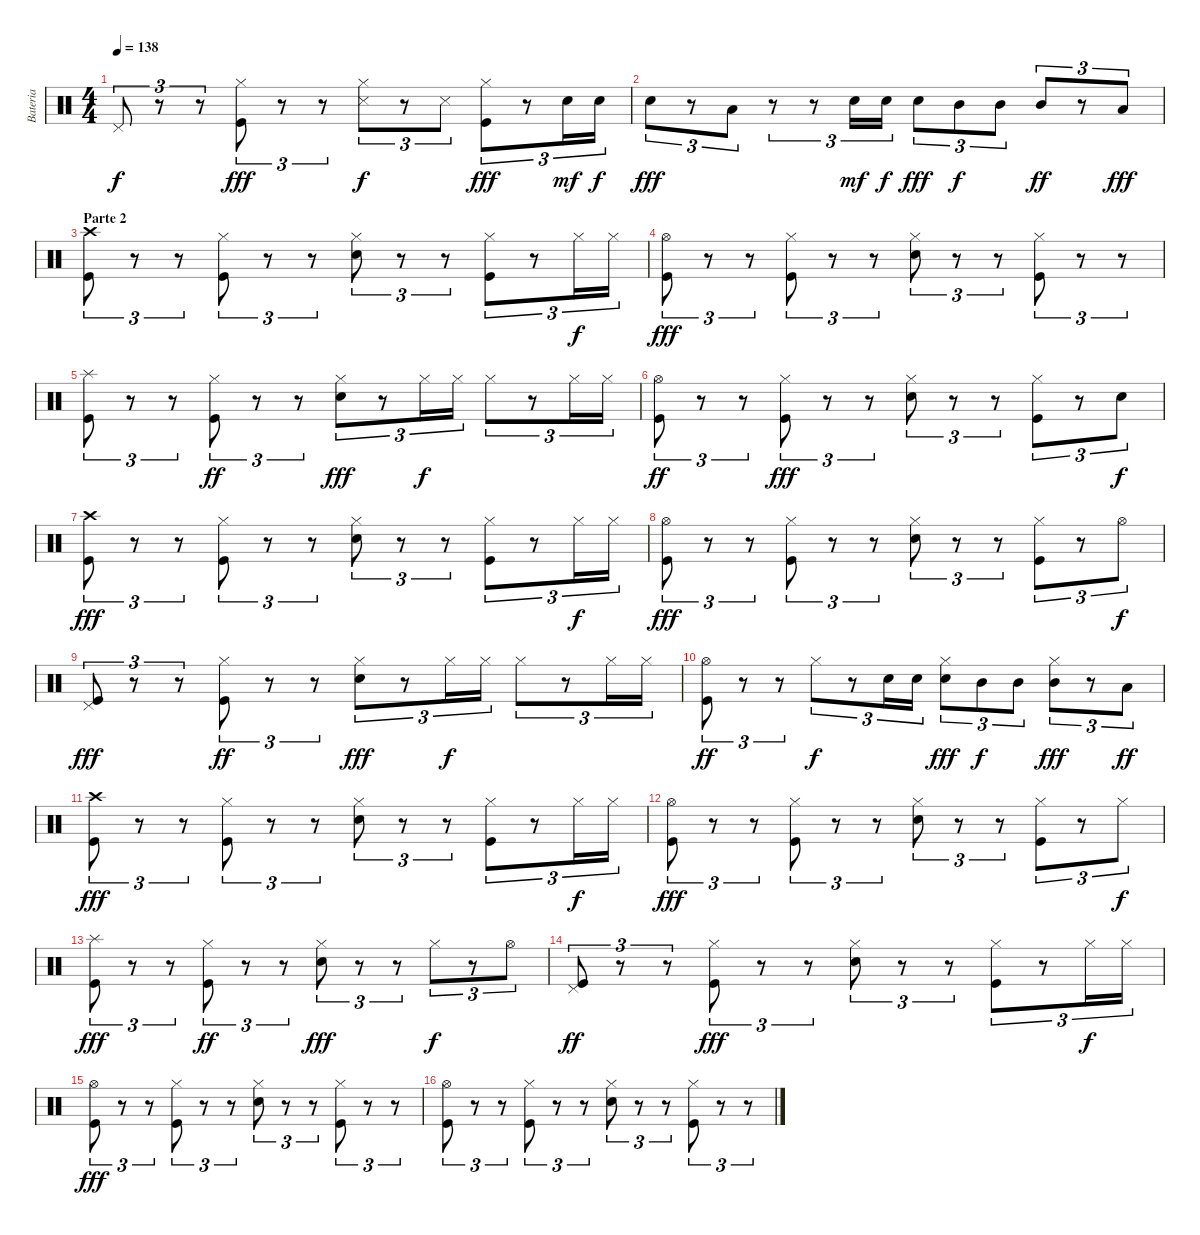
\track ("Bateria" "Bateria") {instrument percussion}
\staff {score}
\articulation defaults
\ts (4 4)
\tempo 138
\clef neutral
\ks c "Pedal Hi-Hat (hit)".8{tu (3 2) dy f}
r.8{tu (3 2)} r.8{tu (3 2)} ("Kick (hit)" "Hi-Hat (closed)").8{tu (3 2) dy fff} r.8{tu (3 2)} r.8{tu (3 2)} ("Snare (side stick) 3" "Hi-Hat (closed)").8{tu (3 2) dy f} r.8{tu (3 2)} "Snare (side stick) 3".8{tu (3 2)} ("Kick (hit)" "Hi-Hat (closed)").8{tu (3 2) dy fff} r.8{tu (3 2)} "Electric Snare (hit)".16{tu (3 2) dy mf} "Electric Snare (hit)".16{tu (3 2) dy f} |
"Electric Snare (hit)".8{tu (3 2) dy fff} r.8{tu (3 2)} "Low Tom (hit)".8{tu (3 2)} r.8{tu (3 2)} r.8{tu (3 2)} "Electric Snare (hit)".16{tu (3 2) dy mf} "Electric Snare (hit)".16{tu (3 2) dy f} "Electric Snare (hit)".8{tu (3 2) dy fff} "Mid Tom (hit)".8{tu (3 2) dy f} "Mid Tom (hit)".8{tu (3 2)} "Mid Tom (hit)".8{tu (3 2) dy ff} r.8{tu (3 2)} "Low Tom (hit)".8{tu (3 2) dy fff} |
\section ("" "Parte 2")
("Kick (hit)" "Crash high (hit)").8{tu (3 2)} r.8{tu (3 2)} r.8{tu (3 2)} ("Kick (hit)" "Hi-Hat (closed)").8{tu (3 2)} r.8{tu (3 2)} r.8{tu (3 2)} ("Electric Snare (hit)" "Hi-Hat (closed)").8{tu (3 2)} r.8{tu (3 2)} r.8{tu (3 2)} ("Kick (hit)" "Hi-Hat (closed)").8{tu (3 2)} r.8{tu (3 2)} "Hi-Hat (closed)".16{tu (3 2) dy f} "Hi-Hat (closed)".16{tu (3 2)} |
("Kick (hit)" "Hi-Hat (open)").8{tu (3 2) dy fff} r.8{tu (3 2)} r.8{tu (3 2)} ("Kick (hit)" "Hi-Hat (closed)").8{tu (3 2)} r.8{tu (3 2)} r.8{tu (3 2)} ("Electric Snare (hit)" "Hi-Hat (closed)").8{tu (3 2)} r.8{tu (3 2)} r.8{tu (3 2)} ("Kick (hit)" "Hi-Hat (closed)").8{tu (3 2)} r.8{tu (3 2)} r.8{tu (3 2)} |
("Kick (hit)" "Splash (hit)").8{tu (3 2)} r.8{tu (3 2)} r.8{tu (3 2)} ("Kick (hit)" "Hi-Hat (closed)").8{tu (3 2) dy ff} r.8{tu (3 2)} r.8{tu (3 2)} ("Electric Snare (hit)" "Hi-Hat (closed)").8{tu (3 2) dy fff} r.8{tu (3 2)} "Hi-Hat (closed)".16{tu (3 2) dy f} "Hi-Hat (closed)".16{tu (3 2)} "Hi-Hat (closed)".8{tu (3 2)} r.8{tu (3 2)} "Hi-Hat (closed)".16{tu (3 2)} "Hi-Hat (closed)".16{tu (3 2)} |
("Kick (hit)" "Hi-Hat (open)").8{tu (3 2) dy ff} r.8{tu (3 2)} r.8{tu (3 2)} ("Kick (hit)" "Hi-Hat (closed)").8{tu (3 2) dy fff} r.8{tu (3 2)} r.8{tu (3 2)} ("Electric Snare (hit)" "Hi-Hat (closed)").8{tu (3 2)} r.8{tu (3 2)} r.8{tu (3 2)} ("Kick (hit)" "Hi-Hat (closed)").8{tu (3 2)} r.8{tu (3 2)} "Electric Snare (hit)".8{tu (3 2) dy f} |
("Kick (hit)" "Crash high (hit)").8{tu (3 2) dy fff} r.8{tu (3 2)} r.8{tu (3 2)} ("Kick (hit)" "Hi-Hat (closed)").8{tu (3 2)} r.8{tu (3 2)} r.8{tu (3 2)} ("Electric Snare (hit)" "Hi-Hat (closed)").8{tu (3 2)} r.8{tu (3 2)} r.8{tu (3 2)} ("Kick (hit)" "Hi-Hat (closed)").8{tu (3 2)} r.8{tu (3 2)} "Hi-Hat (closed)".16{tu (3 2) dy f} "Hi-Hat (closed)".16{tu (3 2)} |
("Kick (hit)" "Hi-Hat (open)").8{tu (3 2) dy fff} r.8{tu (3 2)} r.8{tu (3 2)} ("Kick (hit)" "Hi-Hat (closed)").8{tu (3 2)} r.8{tu (3 2)} r.8{tu (3 2)} ("Electric Snare (hit)" "Hi-Hat (closed)").8{tu (3 2)} r.8{tu (3 2)} r.8{tu (3 2)} ("Kick (hit)" "Hi-Hat (closed)").8{tu (3 2)} r.8{tu (3 2)} "Hi-Hat (open)".8{tu (3 2) dy f} |
("Kick (hit)" "Pedal Hi-Hat (hit)").8{tu (3 2) dy fff} r.8{tu (3 2)} r.8{tu (3 2)} ("Kick (hit)" "Hi-Hat (closed)").8{tu (3 2) dy ff} r.8{tu (3 2)} r.8{tu (3 2)} ("Electric Snare (hit)" "Hi-Hat (closed)").8{tu (3 2) dy fff} r.8{tu (3 2)} "Hi-Hat (closed)".16{tu (3 2) dy f} "Hi-Hat (closed)".16{tu (3 2)} "Hi-Hat (closed)".8{tu (3 2)} r.8{tu (3 2)} "Hi-Hat (closed)".16{tu (3 2)} "Hi-Hat (closed)".16{tu (3 2)} |
("Kick (hit)" "Hi-Hat (open)").8{tu (3 2) dy ff} r.8{tu (3 2)} r.8{tu (3 2)} "Hi-Hat (closed)".8{tu (3 2) dy f} r.8{tu (3 2)} "Electric Snare (hit)".16{tu (3 2)} "Electric Snare (hit)".16{tu (3 2)} ("Electric Snare (hit)" "Hi-Hat (closed)").8{tu (3 2) dy fff} "Mid Tom (hit)".8{tu (3 2) dy f} "Mid Tom (hit)".8{tu (3 2)} ("Mid Tom (hit)" "Hi-Hat (closed)").8{tu (3 2) dy fff} r.8{tu (3 2)} "Low Tom (hit)".8{tu (3 2) dy ff} |
("Kick (hit)" "Crash high (hit)").8{tu (3 2) dy fff} r.8{tu (3 2)} r.8{tu (3 2)} ("Kick (hit)" "Hi-Hat (closed)").8{tu (3 2)} r.8{tu (3 2)} r.8{tu (3 2)} ("Electric Snare (hit)" "Hi-Hat (closed)").8{tu (3 2)} r.8{tu (3 2)} r.8{tu (3 2)} ("Kick (hit)" "Hi-Hat (closed)").8{tu (3 2)} r.8{tu (3 2)} "Hi-Hat (closed)".16{tu (3 2) dy f} "Hi-Hat (closed)".16{tu (3 2)} |
("Kick (hit)" "Hi-Hat (open)").8{tu (3 2) dy fff} r.8{tu (3 2)} r.8{tu (3 2)} ("Kick (hit)" "Hi-Hat (closed)").8{tu (3 2)} r.8{tu (3 2)} r.8{tu (3 2)} ("Electric Snare (hit)" "Hi-Hat (closed)").8{tu (3 2)} r.8{tu (3 2)} r.8{tu (3 2)} ("Kick (hit)" "Hi-Hat (closed)").8{tu (3 2)} r.8{tu (3 2)} "Hi-Hat (closed)".8{tu (3 2) dy f} |
("Kick (hit)" "Splash (hit)").8{tu (3 2) dy fff} r.8{tu (3 2)} r.8{tu (3 2)} ("Kick (hit)" "Hi-Hat (closed)").8{tu (3 2) dy ff} r.8{tu (3 2)} r.8{tu (3 2)} ("Electric Snare (hit)" "Hi-Hat (closed)").8{tu (3 2) dy fff} r.8{tu (3 2)} r.8{tu (3 2)} "Hi-Hat (closed)".8{tu (3 2) dy f} r.8{tu (3 2)} "Hi-Hat (open)".8{tu (3 2)} |
("Kick (hit)" "Pedal Hi-Hat (hit)").8{tu (3 2) dy ff} r.8{tu (3 2)} r.8{tu (3 2)} ("Kick (hit)" "Hi-Hat (closed)").8{tu (3 2) dy fff} r.8{tu (3 2)} r.8{tu (3 2)} ("Electric Snare (hit)" "Hi-Hat (closed)").8{tu (3 2)} r.8{tu (3 2)} r.8{tu (3 2)} ("Kick (hit)" "Hi-Hat (closed)").8{tu (3 2)} r.8{tu (3 2)} "Hi-Hat (closed)".16{tu (3 2) dy f} "Hi-Hat (closed)".16{tu (3 2)} |
("Kick (hit)" "Hi-Hat (open)").8{tu (3 2) dy fff} r.8{tu (3 2)} r.8{tu (3 2)} ("Kick (hit)" "Hi-Hat (closed)").8{tu (3 2)} r.8{tu (3 2)} r.8{tu (3 2)} ("Electric Snare (hit)" "Hi-Hat (closed)").8{tu (3 2)} r.8{tu (3 2)} r.8{tu (3 2)} ("Kick (hit)" "Hi-Hat (closed)").8{tu (3 2)} r.8{tu (3 2)} r.8{tu (3 2)} |
("Kick (hit)" "Hi-Hat (open)").8{tu (3 2)} r.8{tu (3 2)} r.8{tu (3 2)} ("Kick (hit)" "Hi-Hat (closed)").8{tu (3 2)} r.8{tu (3 2)} r.8{tu (3 2)} ("Electric Snare (hit)" "Hi-Hat (closed)").8{tu (3 2)} r.8{tu (3 2)} r.8{tu (3 2)} ("Kick (hit)" "Hi-Hat (closed)").8{tu (3 2)} r.8{tu (3 2)} r.8{tu (3 2)}
